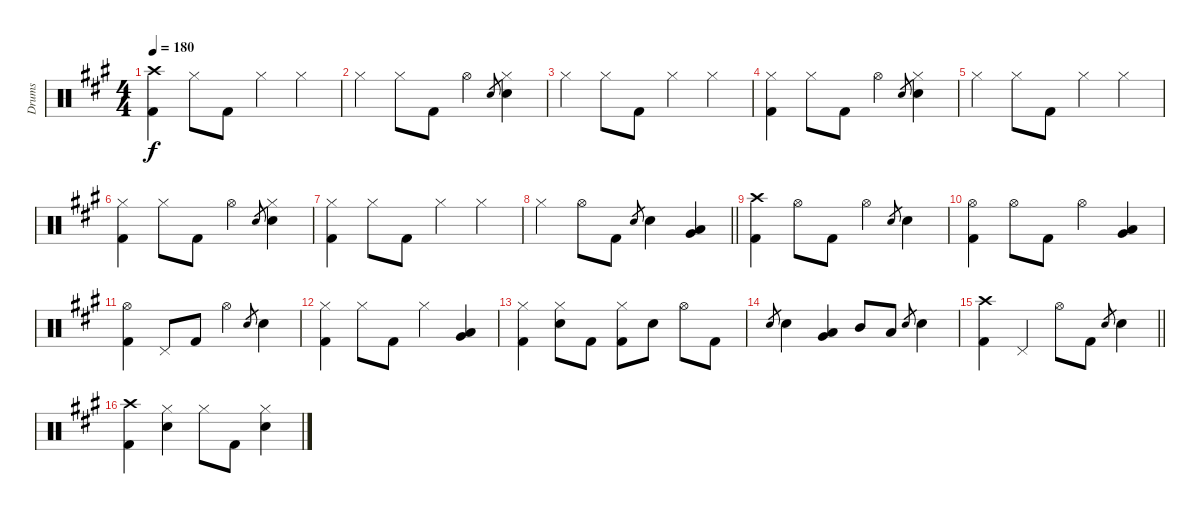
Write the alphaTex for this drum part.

\track ("Drums" "Drums") {instrument percussion}
\staff {score}
\articulation defaults
\ts (4 4)
\tempo 180
\clef neutral
\ks a
("Crash high (hit)" "Kick (hit) 2").4{dy f} "Hi-Hat (closed)".8 "Kick (hit) 2".8 "Hi-Hat (closed)".4 "Hi-Hat (closed)".4 |
"Hi-Hat (closed)".4 "Hi-Hat (closed)".8 "Kick (hit) 2".8 "Hi-Hat (open)".4 "Electric Snare (hit)".8{gr} ("Hi-Hat (closed)" "Electric Snare (hit)").4 |
"Hi-Hat (closed)".4 "Hi-Hat (closed)".8 "Kick (hit) 2".8 "Hi-Hat (closed)".4 "Hi-Hat (closed)".4 |
("Hi-Hat (closed)" "Kick (hit) 2").4 "Hi-Hat (closed)".8 "Kick (hit) 2".8 "Hi-Hat (open)".4 "Electric Snare (hit)".8{gr} ("Hi-Hat (closed)" "Electric Snare (hit)").4 |
"Hi-Hat (closed)".4 "Hi-Hat (closed)".8 "Kick (hit) 2".8 "Hi-Hat (closed)".4 "Hi-Hat (closed)".4 |
("Hi-Hat (closed)" "Kick (hit) 2").4 "Hi-Hat (closed)".8 "Kick (hit) 2".8 "Hi-Hat (open)".4 "Electric Snare (hit)".8{gr} ("Hi-Hat (closed)" "Electric Snare (hit)").4 |
("Hi-Hat (closed)" "Kick (hit) 2").4 "Hi-Hat (closed)".8 "Kick (hit) 2".8 "Hi-Hat (closed)".4 "Hi-Hat (closed)".4 |
\barLineRight lightlight "Hi-Hat (closed)".4 "Hi-Hat (open)".8 "Kick (hit) 2".8 "Electric Snare (hit)".8{gr} "Electric Snare (hit)".4
("Low Tom (hit)" "Very Low Tom (hit)").4 |
("Crash high (hit)" "Kick (hit) 2").4 "Hi-Hat (open)".8 "Kick (hit) 2".8 "Hi-Hat (open)".4 "Electric Snare (hit)".8{gr} "Electric Snare (hit)".4 |
("Hi-Hat (open)" "Kick (hit) 2").4 "Hi-Hat (open)".8 "Kick (hit) 2".8 "Hi-Hat (open)".4 ("Low Tom (hit)" "Very Low Tom (hit)").4 |
("Hi-Hat (open)" "Kick (hit) 2").4 "Pedal Hi-Hat (hit)".8 "Kick (hit) 2".8 "Hi-Hat (open)".4 "Electric Snare (hit)".8{gr} "Electric Snare (hit)".4 |
("Hi-Hat (closed)" "Kick (hit) 2").4 "Hi-Hat (closed)".8 "Kick (hit) 2".8 "Hi-Hat (closed)".4 ("Low Tom (hit)" "Very Low Tom (hit)").4 |
("Hi-Hat (closed)" "Kick (hit) 2").4 ("Hi-Hat (closed)" "Electric Snare (hit)").8 "Kick (hit) 2".8 ("Hi-Hat (closed)" "Kick (hit) 2").8 "Electric Snare (hit)".8 "Hi-Hat (open)".8 "Kick (hit) 2".8 |
"Electric Snare (hit)".8{gr} "Electric Snare (hit)".4 ("Low Tom (hit)" "Very Low Tom (hit)").4 "Mid Tom (hit)".8 "Low Tom (hit)".8 "Electric Snare (hit)".8{gr} "Electric Snare (hit)".4 |
\barLineRight lightlight
("Crash high (hit)" "Kick (hit) 2").4 "Pedal Hi-Hat (hit)".4 "Hi-Hat (open)".8 "Kick (hit) 2".8 "Electric Snare (hit)".8{gr} "Electric Snare (hit)".4 |
("Crash high (hit)" "Kick (hit) 2").4 ("Hi-Hat (closed)" "Electric Snare (hit)").4 "Hi-Hat (closed)".8 "Kick (hit) 2".8 ("Hi-Hat (closed)" "Electric Snare (hit)").4
